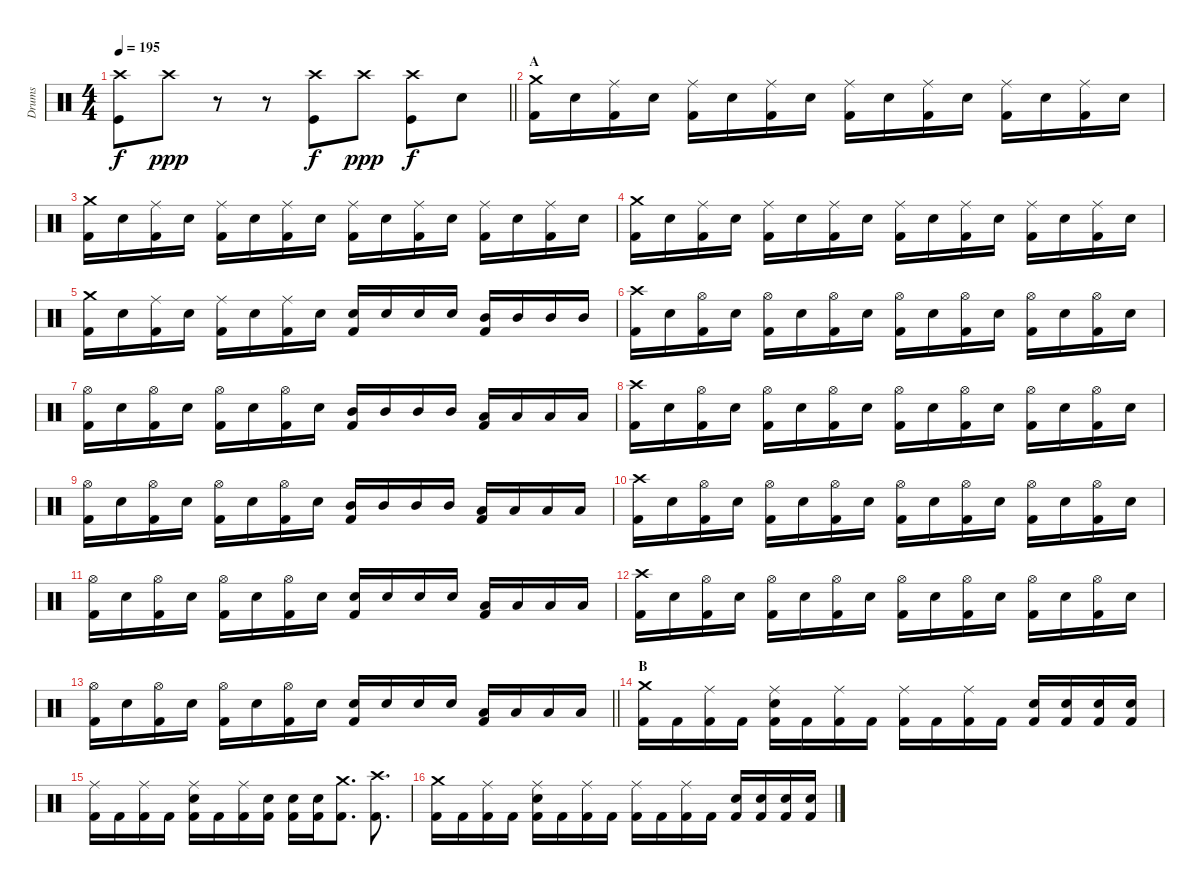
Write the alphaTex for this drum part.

\track ("Drums" "Drums") {instrument percussion}
\staff {score}
\articulation defaults
\ts (4 4)
\tempo 195
\clef neutral
\barLineRight lightlight
\ks c
("Crash high (hit)" "Kick (hit)").8{dy f} "Crash high (hit)".8{dy ppp} r.8 r.8 ("Crash high (hit)" "Kick (hit)").8{dy f} "Crash high (hit)".8{dy ppp} ("Crash high (hit)" "Kick (hit)").8{dy f} "Snare (hit) 2".8 |
\section ("" "A")
("Crash medium (hit)" "Kick (hit) 2").16 "Snare (hit) 2".16 ("Ride (middle)" "Kick (hit) 2").16 "Snare (hit) 2".16 ("Ride (middle)" "Kick (hit) 2").16 "Snare (hit) 2".16 ("Ride (middle)" "Kick (hit) 2").16 "Snare (hit) 2".16 ("Ride (middle)" "Kick (hit) 2").16 "Snare (hit) 2".16 ("Ride (middle)" "Kick (hit) 2").16 "Snare (hit) 2".16 ("Ride (middle)" "Kick (hit) 2").16 "Snare (hit) 2".16 ("Ride (middle)" "Kick (hit) 2").16 "Snare (hit) 2".16 |
("Crash medium (hit)" "Kick (hit) 2").16 "Snare (hit) 2".16 ("Ride (middle)" "Kick (hit) 2").16 "Snare (hit) 2".16 ("Ride (middle)" "Kick (hit) 2").16 "Snare (hit) 2".16 ("Ride (middle)" "Kick (hit) 2").16 "Snare (hit) 2".16 ("Ride (middle)" "Kick (hit) 2").16 "Snare (hit) 2".16 ("Ride (middle)" "Kick (hit) 2").16 "Snare (hit) 2".16 ("Ride (middle)" "Kick (hit) 2").16 "Snare (hit) 2".16 ("Ride (middle)" "Kick (hit) 2").16 "Snare (hit) 2".16 |
("Crash medium (hit)" "Kick (hit) 2").16 "Snare (hit) 2".16 ("Ride (middle)" "Kick (hit) 2").16 "Snare (hit) 2".16 ("Ride (middle)" "Kick (hit) 2").16 "Snare (hit) 2".16 ("Ride (middle)" "Kick (hit) 2").16 "Snare (hit) 2".16 ("Ride (middle)" "Kick (hit) 2").16 "Snare (hit) 2".16 ("Ride (middle)" "Kick (hit) 2").16 "Snare (hit) 2".16 ("Ride (middle)" "Kick (hit) 2").16 "Snare (hit) 2".16 ("Ride (middle)" "Kick (hit) 2").16 "Snare (hit) 2".16 |
("Crash medium (hit)" "Kick (hit) 2").16 "Snare (hit) 2".16 ("Ride (middle)" "Kick (hit) 2").16 "Snare (hit) 2".16 ("Ride (middle)" "Kick (hit) 2").16 "Snare (hit) 2".16 ("Ride (middle)" "Kick (hit) 2").16 "Snare (hit) 2".16 ("Snare (hit) 2" "Kick (hit) 2").16 "Snare (hit) 2".16 "Snare (hit) 2".16 "Snare (hit) 2".16 ("Mid Tom (hit)" "Kick (hit) 2").16 "Mid Tom (hit)".16 "Mid Tom (hit)".16 "Mid Tom (hit)".16 |
("Crash high (hit)" "Kick (hit) 2").16 "Snare (hit) 2".16 ("Hi-Hat (open)" "Kick (hit) 2").16 "Snare (hit) 2".16 ("Hi-Hat (open)" "Kick (hit) 2").16 "Snare (hit) 2".16 ("Hi-Hat (open)" "Kick (hit) 2").16 "Snare (hit) 2".16 ("Hi-Hat (open)" "Kick (hit) 2").16 "Snare (hit) 2".16 ("Hi-Hat (open)" "Kick (hit) 2").16 "Snare (hit) 2".16 ("Hi-Hat (open)" "Kick (hit) 2").16 "Snare (hit) 2".16 ("Hi-Hat (open)" "Kick (hit) 2").16 "Snare (hit) 2".16 |
("Hi-Hat (open)" "Kick (hit) 2").16 "Snare (hit) 2".16 ("Hi-Hat (open)" "Kick (hit) 2").16 "Snare (hit) 2".16 ("Hi-Hat (open)" "Kick (hit) 2").16 "Snare (hit) 2".16 ("Hi-Hat (open)" "Kick (hit) 2").16 "Snare (hit) 2".16 ("Mid Tom (hit)" "Kick (hit) 2").16 "Mid Tom (hit)".16 "Mid Tom (hit)".16 "Mid Tom (hit)".16 ("Low Tom (hit)" "Kick (hit) 2").16 "Low Tom (hit)".16 "Low Tom (hit)".16 "Low Tom (hit)".16 |
("Crash high (hit)" "Kick (hit) 2").16 "Snare (hit) 2".16 ("Hi-Hat (open)" "Kick (hit) 2").16 "Snare (hit) 2".16 ("Hi-Hat (open)" "Kick (hit) 2").16 "Snare (hit) 2".16 ("Hi-Hat (open)" "Kick (hit) 2").16 "Snare (hit) 2".16 ("Hi-Hat (open)" "Kick (hit) 2").16 "Snare (hit) 2".16 ("Hi-Hat (open)" "Kick (hit) 2").16 "Snare (hit) 2".16 ("Hi-Hat (open)" "Kick (hit) 2").16 "Snare (hit) 2".16 ("Hi-Hat (open)" "Kick (hit) 2").16 "Snare (hit) 2".16 |
("Hi-Hat (open)" "Kick (hit) 2").16 "Snare (hit) 2".16 ("Hi-Hat (open)" "Kick (hit) 2").16 "Snare (hit) 2".16 ("Hi-Hat (open)" "Kick (hit) 2").16 "Snare (hit) 2".16 ("Hi-Hat (open)" "Kick (hit) 2").16 "Snare (hit) 2".16 ("Mid Tom (hit)" "Kick (hit) 2").16 "Mid Tom (hit)".16 "Mid Tom (hit)".16 "Mid Tom (hit)".16 ("Low Tom (hit)" "Kick (hit) 2").16 "Low Tom (hit)".16 "Low Tom (hit)".16 "Low Tom (hit)".16 |
("Crash high (hit)" "Kick (hit) 2").16 "Snare (hit) 2".16 ("Hi-Hat (open)" "Kick (hit) 2").16 "Snare (hit) 2".16 ("Hi-Hat (open)" "Kick (hit) 2").16 "Snare (hit) 2".16 ("Hi-Hat (open)" "Kick (hit) 2").16 "Snare (hit) 2".16 ("Hi-Hat (open)" "Kick (hit) 2").16 "Snare (hit) 2".16 ("Hi-Hat (open)" "Kick (hit) 2").16 "Snare (hit) 2".16 ("Hi-Hat (open)" "Kick (hit) 2").16 "Snare (hit) 2".16 ("Hi-Hat (open)" "Kick (hit) 2").16 "Snare (hit) 2".16 |
("Hi-Hat (open)" "Kick (hit) 2").16 "Snare (hit) 2".16 ("Hi-Hat (open)" "Kick (hit) 2").16 "Snare (hit) 2".16 ("Hi-Hat (open)" "Kick (hit) 2").16 "Snare (hit) 2".16 ("Hi-Hat (open)" "Kick (hit) 2").16 "Snare (hit) 2".16 ("Snare (hit) 2" "Kick (hit) 2").16 "Snare (hit) 2".16 "Snare (hit) 2".16 "Snare (hit) 2".16 ("Low Tom (hit)" "Kick (hit) 2").16 "Low Tom (hit)".16 "Low Tom (hit)".16 "Low Tom (hit)".16 |
("Crash high (hit)" "Kick (hit) 2").16 "Snare (hit) 2".16 ("Hi-Hat (open)" "Kick (hit) 2").16 "Snare (hit) 2".16 ("Hi-Hat (open)" "Kick (hit) 2").16 "Snare (hit) 2".16 ("Hi-Hat (open)" "Kick (hit) 2").16 "Snare (hit) 2".16 ("Hi-Hat (open)" "Kick (hit) 2").16 "Snare (hit) 2".16 ("Hi-Hat (open)" "Kick (hit) 2").16 "Snare (hit) 2".16 ("Hi-Hat (open)" "Kick (hit) 2").16 "Snare (hit) 2".16 ("Hi-Hat (open)" "Kick (hit) 2").16 "Snare (hit) 2".16 |
\barLineRight lightlight
("Hi-Hat (open)" "Kick (hit) 2").16 "Snare (hit) 2".16 ("Hi-Hat (open)" "Kick (hit) 2").16 "Snare (hit) 2".16 ("Hi-Hat (open)" "Kick (hit) 2").16 "Snare (hit) 2".16 ("Hi-Hat (open)" "Kick (hit) 2").16 "Snare (hit) 2".16 ("Snare (hit) 2" "Kick (hit) 2").16 "Snare (hit) 2".16 "Snare (hit) 2".16 "Snare (hit) 2".16 ("Low Tom (hit)" "Kick (hit) 2").16 "Low Tom (hit)".16 "Low Tom (hit)".16 "Low Tom (hit)".16 |
\section ("" "B")
("Crash medium (hit)" "Kick (hit) 2").16 "Kick (hit) 2".16 ("Ride (middle)" "Kick (hit) 2").16 "Kick (hit) 2".16 ("Ride (middle)" "Snare (hit) 2" "Kick (hit) 2").16 "Kick (hit) 2".16 ("Ride (middle)" "Kick (hit) 2").16 "Kick (hit) 2".16 ("Ride (middle)" "Kick (hit) 2").16 "Kick (hit) 2".16 ("Ride (middle)" "Kick (hit) 2").16 "Kick (hit) 2".16 ("Snare (hit) 2" "Kick (hit) 2").16 ("Snare (hit) 2" "Kick (hit) 2").16 ("Snare (hit) 2" "Kick (hit) 2").16 ("Snare (hit) 2" "Kick (hit) 2").16 |
("Ride (middle)" "Kick (hit) 2").16 "Kick (hit) 2".16 ("Ride (middle)" "Kick (hit) 2").16 "Kick (hit) 2".16 ("Ride (middle)" "Snare (hit) 2" "Kick (hit) 2").16 "Kick (hit) 2".16 ("Ride (middle)" "Kick (hit) 2").16 ("Snare (hit) 2" "Kick (hit) 2").16 ("Snare (hit) 2" "Kick (hit) 2").16 ("Snare (hit) 2" "Kick (hit) 2").16 ("Crash medium (hit)" "Kick (hit) 2").8{d} ("Crash high (hit)" "Kick (hit) 2").8{d} |
("Crash medium (hit)" "Kick (hit) 2").16 "Kick (hit) 2".16 ("Ride (middle)" "Kick (hit) 2").16 "Kick (hit) 2".16 ("Ride (middle)" "Snare (hit) 2" "Kick (hit) 2").16 "Kick (hit) 2".16 ("Ride (middle)" "Kick (hit) 2").16 "Kick (hit) 2".16 ("Ride (middle)" "Kick (hit) 2").16 "Kick (hit) 2".16 ("Ride (middle)" "Kick (hit) 2").16 "Kick (hit) 2".16 ("Snare (hit) 2" "Kick (hit) 2").16 ("Snare (hit) 2" "Kick (hit) 2").16 ("Snare (hit) 2" "Kick (hit) 2").16 ("Snare (hit) 2" "Kick (hit) 2").16
